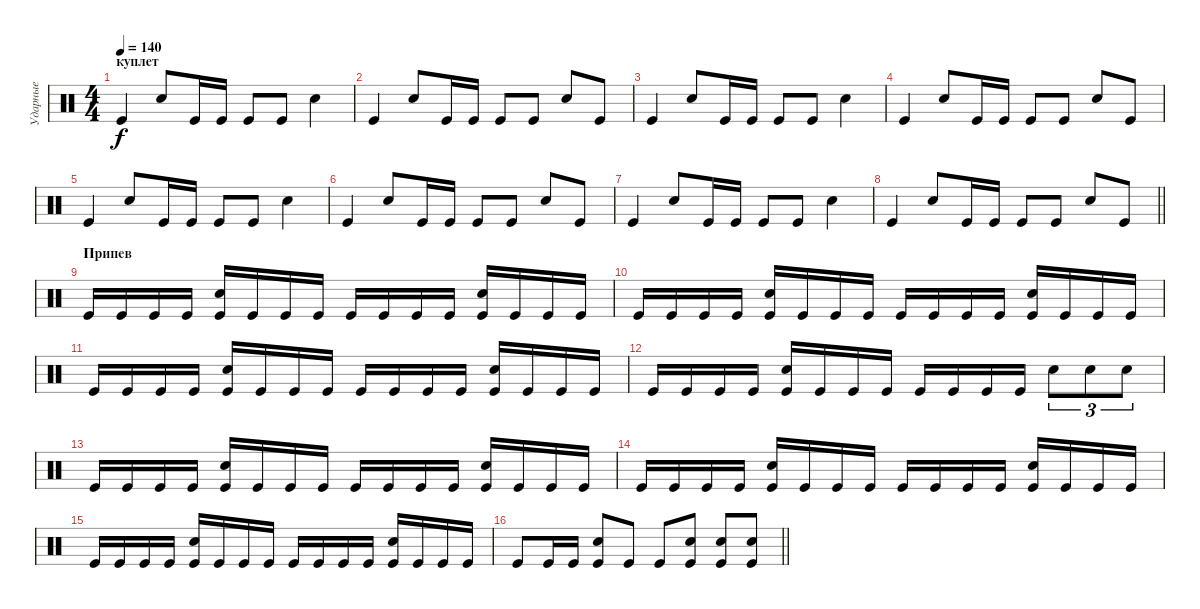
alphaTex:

\track ("Ударные" "Ударные") {instrument percussion}
\staff {score}
\articulation defaults
\ts (4 4)
\section ("" "куплет")
\tempo 140
\clef neutral
\ks c "Kick (hit)".4{dy f} "Snare (hit) 2".8 "Kick (hit)".16 "Kick (hit)".16 "Kick (hit)".8 "Kick (hit)".8 "Snare (hit) 2".4
|
"Kick (hit)".4 "Snare (hit) 2".8 "Kick (hit)".16 "Kick (hit)".16 "Kick (hit)".8 "Kick (hit)".8 "Snare (hit) 2".8 "Kick (hit)".8 |
"Kick (hit)".4 "Snare (hit) 2".8 "Kick (hit)".16 "Kick (hit)".16 "Kick (hit)".8 "Kick (hit)".8 "Snare (hit) 2".4 |
"Kick (hit)".4 "Snare (hit) 2".8 "Kick (hit)".16 "Kick (hit)".16 "Kick (hit)".8 "Kick (hit)".8 "Snare (hit) 2".8 "Kick (hit)".8 |
"Kick (hit)".4 "Snare (hit) 2".8 "Kick (hit)".16 "Kick (hit)".16 "Kick (hit)".8 "Kick (hit)".8 "Snare (hit) 2".4 |
"Kick (hit)".4 "Snare (hit) 2".8 "Kick (hit)".16 "Kick (hit)".16 "Kick (hit)".8 "Kick (hit)".8 "Snare (hit) 2".8 "Kick (hit)".8 |
"Kick (hit)".4 "Snare (hit) 2".8 "Kick (hit)".16 "Kick (hit)".16 "Kick (hit)".8 "Kick (hit)".8 "Snare (hit) 2".4 |
\barLineRight lightlight "Kick (hit)".4 "Snare (hit) 2".8 "Kick (hit)".16 "Kick (hit)".16 "Kick (hit)".8 "Kick (hit)".8 "Snare (hit) 2".8 "Kick (hit)".8
|
\section ("" "Припев")
"Kick (hit)".16 "Kick (hit)".16 "Kick (hit)".16 "Kick (hit)".16 ("Snare (hit) 2" "Kick (hit)").16 "Kick (hit)".16 "Kick (hit)".16 "Kick (hit)".16 "Kick (hit)".16 "Kick (hit)".16 "Kick (hit)".16 "Kick (hit)".16 ("Kick (hit)" "Snare (hit) 2").16 "Kick (hit)".16 "Kick (hit)".16 "Kick (hit)".16 |
"Kick (hit)".16 "Kick (hit)".16 "Kick (hit)".16 "Kick (hit)".16 ("Snare (hit) 2" "Kick (hit)").16 "Kick (hit)".16 "Kick (hit)".16 "Kick (hit)".16 "Kick (hit)".16 "Kick (hit)".16 "Kick (hit)".16 "Kick (hit)".16 ("Kick (hit)" "Snare (hit) 2").16 "Kick (hit)".16 "Kick (hit)".16 "Kick (hit)".16 |
"Kick (hit)".16 "Kick (hit)".16 "Kick (hit)".16 "Kick (hit)".16 ("Snare (hit) 2" "Kick (hit)").16 "Kick (hit)".16 "Kick (hit)".16 "Kick (hit)".16 "Kick (hit)".16 "Kick (hit)".16 "Kick (hit)".16 "Kick (hit)".16 ("Kick (hit)" "Snare (hit) 2").16 "Kick (hit)".16 "Kick (hit)".16 "Kick (hit)".16 |
"Kick (hit)".16 "Kick (hit)".16 "Kick (hit)".16 "Kick (hit)".16 ("Snare (hit) 2" "Kick (hit)").16 "Kick (hit)".16 "Kick (hit)".16 "Kick (hit)".16 "Kick (hit)".16 "Kick (hit)".16 "Kick (hit)".16 "Kick (hit)".16 "Snare (hit) 2".8{tu (3 2)} "Snare (hit) 2".8{tu (3 2)} "Snare (hit) 2".8{tu (3 2)} |
"Kick (hit)".16 "Kick (hit)".16 "Kick (hit)".16 "Kick (hit)".16 ("Snare (hit) 2" "Kick (hit)").16 "Kick (hit)".16 "Kick (hit)".16 "Kick (hit)".16 "Kick (hit)".16 "Kick (hit)".16 "Kick (hit)".16 "Kick (hit)".16 ("Kick (hit)" "Snare (hit) 2").16 "Kick (hit)".16 "Kick (hit)".16 "Kick (hit)".16 |
"Kick (hit)".16 "Kick (hit)".16 "Kick (hit)".16 "Kick (hit)".16 ("Snare (hit) 2" "Kick (hit)").16 "Kick (hit)".16 "Kick (hit)".16 "Kick (hit)".16 "Kick (hit)".16 "Kick (hit)".16 "Kick (hit)".16 "Kick (hit)".16 ("Kick (hit)" "Snare (hit) 2").16 "Kick (hit)".16 "Kick (hit)".16 "Kick (hit)".16 |
"Kick (hit)".16 "Kick (hit)".16 "Kick (hit)".16 "Kick (hit)".16 ("Snare (hit) 2" "Kick (hit)").16 "Kick (hit)".16 "Kick (hit)".16 "Kick (hit)".16 "Kick (hit)".16 "Kick (hit)".16 "Kick (hit)".16 "Kick (hit)".16 ("Kick (hit)" "Snare (hit) 2").16 "Kick (hit)".16 "Kick (hit)".16 "Kick (hit)".16 |
\barLineRight lightlight "Kick (hit)".8 "Kick (hit)".16 "Kick (hit)".16
("Kick (hit)" "Snare (hit) 2").8 "Kick (hit)".8 "Kick (hit)".8 ("Kick (hit)" "Snare (hit) 2").8 ("Kick (hit)" "Snare (hit) 2").8 ("Kick (hit)" "Snare (hit) 2").8
